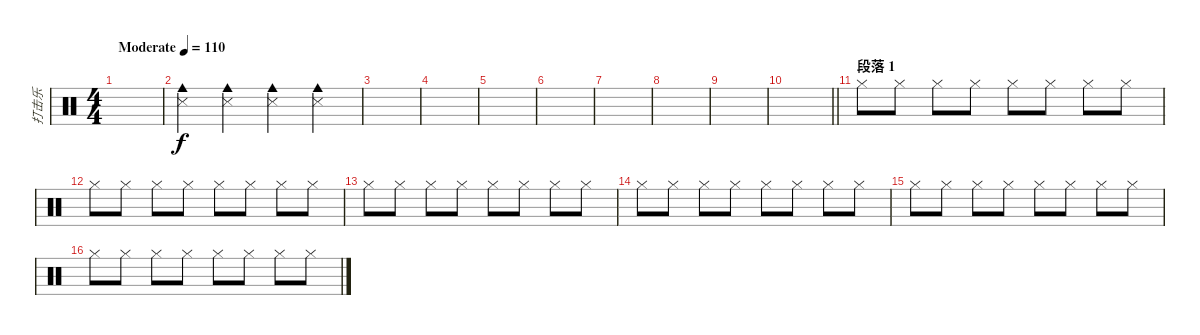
\track ("打击乐" "打击乐") {instrument percussion}
\staff {score}
\articulation defaults
\ts (4 4)
\tempo (110 "Moderate")
\clef neutral
\ks c
|
("Cowbell medium (hit)" "Snare (side stick) 3").4 ("Cowbell medium (hit)" "Snare (side stick) 3").4 ("Cowbell medium (hit)" "Snare (side stick) 3").4 ("Cowbell medium (hit)" "Snare (side stick) 3").4 |
|
|
|
|
|
|
|
\barLineRight lightlight
|
\section ("" "段落 1")
"Hi-Hat (closed)".8 "Hi-Hat (closed)".8 "Hi-Hat (closed)".8 "Hi-Hat (closed)".8 "Hi-Hat (closed)".8 "Hi-Hat (closed)".8 "Hi-Hat (closed)".8 "Hi-Hat (closed)".8 |
"Hi-Hat (closed)".8 "Hi-Hat (closed)".8 "Hi-Hat (closed)".8 "Hi-Hat (closed)".8 "Hi-Hat (closed)".8 "Hi-Hat (closed)".8 "Hi-Hat (closed)".8 "Hi-Hat (closed)".8 |
"Hi-Hat (closed)".8 "Hi-Hat (closed)".8 "Hi-Hat (closed)".8 "Hi-Hat (closed)".8 "Hi-Hat (closed)".8 "Hi-Hat (closed)".8 "Hi-Hat (closed)".8 "Hi-Hat (closed)".8 |
"Hi-Hat (closed)".8 "Hi-Hat (closed)".8 "Hi-Hat (closed)".8 "Hi-Hat (closed)".8 "Hi-Hat (closed)".8 "Hi-Hat (closed)".8 "Hi-Hat (closed)".8 "Hi-Hat (closed)".8 |
"Hi-Hat (closed)".8 "Hi-Hat (closed)".8 "Hi-Hat (closed)".8 "Hi-Hat (closed)".8 "Hi-Hat (closed)".8 "Hi-Hat (closed)".8 "Hi-Hat (closed)".8 "Hi-Hat (closed)".8 |
"Hi-Hat (closed)".8 "Hi-Hat (closed)".8 "Hi-Hat (closed)".8 "Hi-Hat (closed)".8 "Hi-Hat (closed)".8 "Hi-Hat (closed)".8 "Hi-Hat (closed)".8 "Hi-Hat (closed)".8
